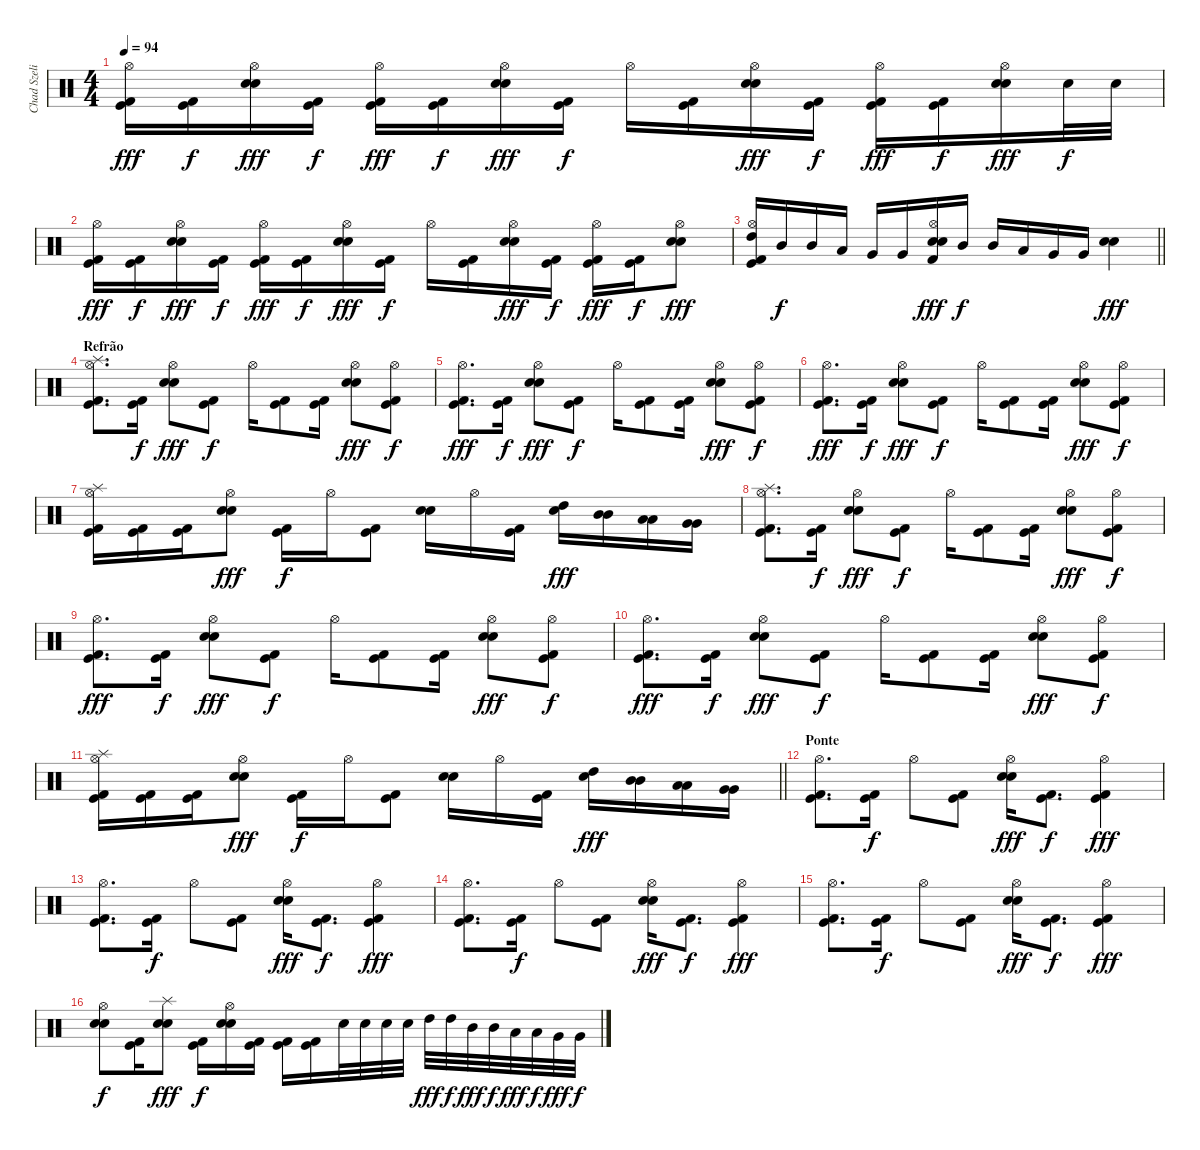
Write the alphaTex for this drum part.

\track ("Chad Szeliga" "Chad Szeli") {instrument percussion}
\staff {score}
\articulation defaults
\ts (4 4)
\tempo 94
\clef neutral
\ks c
("Kick (hit) 2" "Kick (hit)" "Hi-Hat (open)").16{dy fff} ("Kick (hit) 2" "Kick (hit)").16{dy f} ("Snare (hit) 2" "Snare (hit) 2" "Hi-Hat (open)").16{dy fff} ("Kick (hit) 2" "Kick (hit)").16{dy f} ("Kick (hit) 2" "Kick (hit)" "Hi-Hat (open)").16{dy fff} ("Kick (hit) 2" "Kick (hit)").16{dy f} ("Snare (hit) 2" "Snare (hit) 2" "Hi-Hat (open)").16{dy fff} ("Kick (hit) 2" "Kick (hit)").16{dy f} "Hi-Hat (open)".16 ("Kick (hit) 2" "Kick (hit)").16 ("Snare (hit) 2" "Snare (hit) 2" "Hi-Hat (open)").16{dy fff} ("Kick (hit) 2" "Kick (hit)").16{dy f} ("Kick (hit) 2" "Kick (hit)" "Hi-Hat (open)").16{dy fff} ("Kick (hit) 2" "Kick (hit)").16{dy f} ("Snare (hit) 2" "Snare (hit) 2" "Hi-Hat (open)").16{dy fff} "Snare (hit) 2".32{dy f} "Snare (hit) 2".32 |
("Kick (hit) 2" "Kick (hit)" "Hi-Hat (open)").16{dy fff} ("Kick (hit) 2" "Kick (hit)").16{dy f} ("Snare (hit) 2" "Snare (hit) 2" "Hi-Hat (open)").16{dy fff} ("Kick (hit) 2" "Kick (hit)").16{dy f} ("Kick (hit) 2" "Kick (hit)" "Hi-Hat (open)").16{dy fff} ("Kick (hit) 2" "Kick (hit)").16{dy f} ("Snare (hit) 2" "Snare (hit) 2" "Hi-Hat (open)").16{dy fff} ("Kick (hit) 2" "Kick (hit)").16{dy f} "Hi-Hat (open)".16 ("Kick (hit) 2" "Kick (hit)").16 ("Snare (hit) 2" "Snare (hit) 2" "Hi-Hat (open)").16{dy fff} ("Kick (hit) 2" "Kick (hit)").16{dy f} ("Kick (hit) 2" "Kick (hit)" "Hi-Hat (open)").16{dy fff} ("Kick (hit) 2" "Kick (hit)").16{dy f} ("Snare (hit) 2" "Snare (hit) 2" "Hi-Hat (open)").8{dy fff} |
\barLineRight lightlight
("Kick (hit) 2" "Kick (hit)" "High Tom (hit)" "Hi-Hat (open)").16 "Mid Tom (hit)".16{dy f} "Mid Tom (hit)".16 "Low Tom (hit)".16 "Very Low Tom (hit)".16 "Very Low Tom (hit)".16 ("Kick (hit) 2" "Snare (hit) 2" "Snare (hit) 2" "Hi-Hat (open)").16{dy fff} "Mid Tom (hit)".16{dy f} "Mid Tom (hit)".16 "Low Tom (hit)".16 "Very Low Tom (hit)".16 "Very Low Tom (hit)".16 ("Snare (hit) 2" "Snare (hit) 2").4{dy fff} |
\section ("" "Refrão")
("Splash (hit)" "Kick (hit) 2" "Kick (hit)" "Hi-Hat (open)").8{d} ("Kick (hit) 2" "Kick (hit)").16{dy f} ("Snare (hit) 2" "Snare (hit) 2" "Hi-Hat (open)").8{dy fff} ("Kick (hit) 2" "Kick (hit)").8{dy f} "Hi-Hat (open)".16 ("Kick (hit) 2" "Kick (hit)").8 ("Kick (hit) 2" "Kick (hit)").16 ("Snare (hit) 2" "Snare (hit) 2" "Hi-Hat (open)").8{dy fff} ("Kick (hit) 2" "Kick (hit)" "Hi-Hat (open)").8{dy f} |
("Kick (hit) 2" "Kick (hit)" "Hi-Hat (open)").8{d dy fff} ("Kick (hit) 2" "Kick (hit)").16{dy f} ("Snare (hit) 2" "Snare (hit) 2" "Hi-Hat (open)").8{dy fff} ("Kick (hit) 2" "Kick (hit)").8{dy f} "Hi-Hat (open)".16 ("Kick (hit) 2" "Kick (hit)").8 ("Kick (hit) 2" "Kick (hit)").16 ("Snare (hit) 2" "Snare (hit) 2" "Hi-Hat (open)").8{dy fff} ("Kick (hit) 2" "Kick (hit)" "Hi-Hat (open)").8{dy f} |
("Kick (hit) 2" "Kick (hit)" "Hi-Hat (open)").8{d dy fff} ("Kick (hit) 2" "Kick (hit)").16{dy f} ("Snare (hit) 2" "Snare (hit) 2" "Hi-Hat (open)").8{dy fff} ("Kick (hit) 2" "Kick (hit)").8{dy f} "Hi-Hat (open)".16 ("Kick (hit) 2" "Kick (hit)").8 ("Kick (hit) 2" "Kick (hit)").16 ("Snare (hit) 2" "Snare (hit) 2" "Hi-Hat (open)").8{dy fff} ("Kick (hit) 2" "Kick (hit)" "Hi-Hat (open)").8{dy f} |
("Splash (hit)" "Kick (hit) 2" "Kick (hit)" "Hi-Hat (open)").16 ("Kick (hit) 2" "Kick (hit)").16 ("Kick (hit) 2" "Kick (hit)").16 ("Snare (hit) 2" "Snare (hit) 2" "Hi-Hat (open)").8{dy fff} ("Kick (hit) 2" "Kick (hit)").16{dy f} "Hi-Hat (open)".16 ("Kick (hit) 2" "Kick (hit)").8 ("Snare (hit) 2" "Snare (hit) 2").16 "Hi-Hat (open)".16 ("Kick (hit) 2" "Kick (hit)").16 ("High Tom (hit)" "Snare (hit)").16{dy fff} ("Mid Tom (hit)" "Mid Tom (hit)").16 ("Low Tom (hit)" "Low Tom (hit)").16 ("Very Low Tom (hit)" "Very Low Tom (hit)").16 |
("Splash (hit)" "Kick (hit) 2" "Kick (hit)" "Hi-Hat (open)").8{d} ("Kick (hit) 2" "Kick (hit)").16{dy f} ("Snare (hit) 2" "Snare (hit) 2" "Hi-Hat (open)").8{dy fff} ("Kick (hit) 2" "Kick (hit)").8{dy f} "Hi-Hat (open)".16 ("Kick (hit) 2" "Kick (hit)").8 ("Kick (hit) 2" "Kick (hit)").16 ("Snare (hit) 2" "Snare (hit) 2" "Hi-Hat (open)").8{dy fff} ("Kick (hit) 2" "Kick (hit)" "Hi-Hat (open)").8{dy f} |
("Kick (hit) 2" "Kick (hit)" "Hi-Hat (open)").8{d dy fff} ("Kick (hit) 2" "Kick (hit)").16{dy f} ("Snare (hit) 2" "Snare (hit) 2" "Hi-Hat (open)").8{dy fff} ("Kick (hit) 2" "Kick (hit)").8{dy f} "Hi-Hat (open)".16 ("Kick (hit) 2" "Kick (hit)").8 ("Kick (hit) 2" "Kick (hit)").16 ("Snare (hit) 2" "Snare (hit) 2" "Hi-Hat (open)").8{dy fff} ("Kick (hit) 2" "Kick (hit)" "Hi-Hat (open)").8{dy f} |
("Kick (hit) 2" "Kick (hit)" "Hi-Hat (open)").8{d dy fff} ("Kick (hit) 2" "Kick (hit)").16{dy f} ("Snare (hit) 2" "Snare (hit) 2" "Hi-Hat (open)").8{dy fff} ("Kick (hit) 2" "Kick (hit)").8{dy f} "Hi-Hat (open)".16 ("Kick (hit) 2" "Kick (hit)").8 ("Kick (hit) 2" "Kick (hit)").16 ("Snare (hit) 2" "Snare (hit) 2" "Hi-Hat (open)").8{dy fff} ("Kick (hit) 2" "Kick (hit)" "Hi-Hat (open)").8{dy f} |
\barLineRight lightlight
("Splash (hit)" "Kick (hit) 2" "Kick (hit)" "Hi-Hat (open)").16 ("Kick (hit) 2" "Kick (hit)").16 ("Kick (hit) 2" "Kick (hit)").16 ("Snare (hit) 2" "Snare (hit) 2" "Hi-Hat (open)").8{dy fff} ("Kick (hit) 2" "Kick (hit)").16{dy f} "Hi-Hat (open)".16 ("Kick (hit) 2" "Kick (hit)").8 ("Snare (hit) 2" "Snare (hit) 2").16 "Hi-Hat (open)".16 ("Kick (hit) 2" "Kick (hit)").16 ("High Tom (hit)" "Snare (hit)").16{dy fff} ("Mid Tom (hit)" "Mid Tom (hit)").16 ("Low Tom (hit)" "Low Tom (hit)").16 ("Very Low Tom (hit)" "Very Low Tom (hit)").16 |
\section ("" "Ponte")
("Kick (hit) 2" "Kick (hit)" "Hi-Hat (open)").8{d} ("Kick (hit) 2" "Kick (hit)").16{dy f} "Hi-Hat (open)".8 ("Kick (hit) 2" "Kick (hit)").8 ("Snare (hit) 2" "Snare (hit) 2" "Hi-Hat (open)").16{dy fff} ("Kick (hit) 2" "Kick (hit)").8{d dy f} ("Kick (hit) 2" "Kick (hit)" "Hi-Hat (open)").4{dy fff} |
("Kick (hit) 2" "Kick (hit)" "Hi-Hat (open)").8{d} ("Kick (hit) 2" "Kick (hit)").16{dy f} "Hi-Hat (open)".8 ("Kick (hit) 2" "Kick (hit)").8 ("Snare (hit) 2" "Snare (hit) 2" "Hi-Hat (open)").16{dy fff} ("Kick (hit) 2" "Kick (hit)").8{d dy f} ("Kick (hit) 2" "Kick (hit)" "Hi-Hat (open)").4{dy fff} |
("Kick (hit) 2" "Kick (hit)" "Hi-Hat (open)").8{d} ("Kick (hit) 2" "Kick (hit)").16{dy f} "Hi-Hat (open)".8 ("Kick (hit) 2" "Kick (hit)").8 ("Snare (hit) 2" "Snare (hit) 2" "Hi-Hat (open)").16{dy fff} ("Kick (hit) 2" "Kick (hit)").8{d dy f} ("Kick (hit) 2" "Kick (hit)" "Hi-Hat (open)").4{dy fff} |
("Kick (hit) 2" "Kick (hit)" "Hi-Hat (open)").8{d} ("Kick (hit) 2" "Kick (hit)").16{dy f} "Hi-Hat (open)".8 ("Kick (hit) 2" "Kick (hit)").8 ("Snare (hit) 2" "Snare (hit) 2" "Hi-Hat (open)").16{dy fff} ("Kick (hit) 2" "Kick (hit)").8{d dy f} ("Kick (hit) 2" "Kick (hit)" "Hi-Hat (open)").4{dy fff} |
("Snare (hit) 2" "Snare (hit) 2" "Hi-Hat (open)").8{dy f} ("Kick (hit) 2" "Kick (hit)").16 ("Splash (hit)" "Snare (hit) 2" "Snare (hit) 2").8{dy fff} ("Kick (hit) 2" "Kick (hit)").16{dy f} ("Snare (hit) 2" "Snare (hit) 2" "Hi-Hat (open)").16 ("Kick (hit) 2" "Kick (hit)").16 ("Kick (hit) 2" "Kick (hit)").16{beam Down} ("Kick (hit) 2" "Kick (hit)").16{beam Down} "Snare (hit) 2".32{beam Down} "Snare (hit) 2".32{beam Down} "Snare (hit) 2".32{beam Down} "Snare (hit) 2".32{beam Down} "High Tom (hit)".32{dy fff} "High Tom (hit)".32{dy f} "Mid Tom (hit)".32{dy fff} "Mid Tom (hit)".32{dy f} "Low Tom (hit)".32{dy fff} "Low Tom (hit)".32{dy f} "Very Low Tom (hit)".32{dy fff} "Very Low Tom (hit)".32{dy f}
